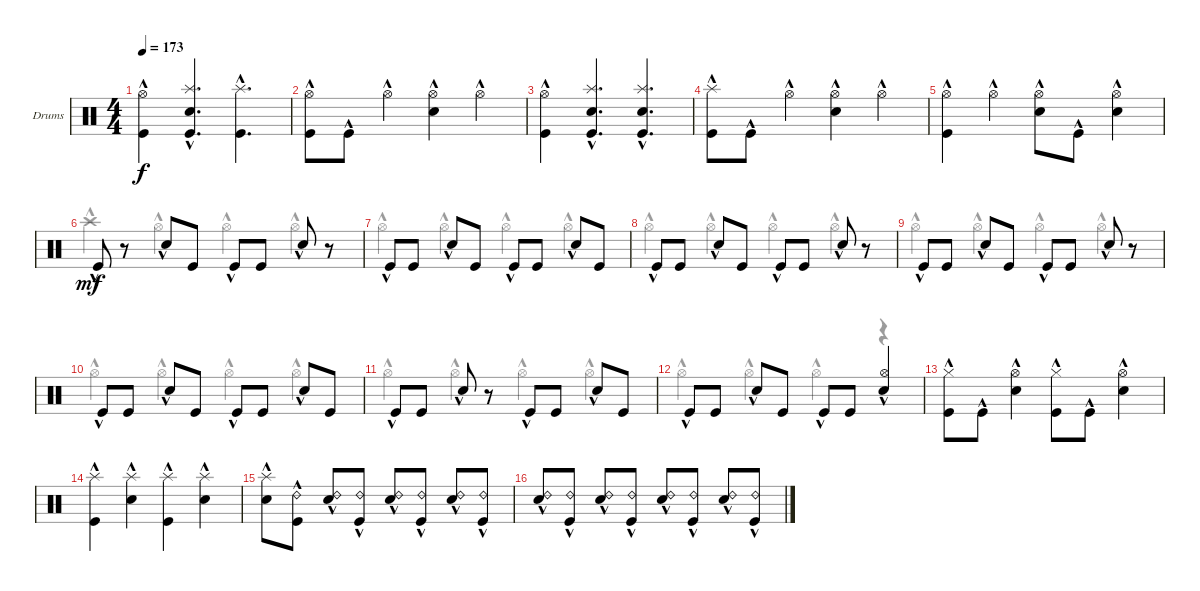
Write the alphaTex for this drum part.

\defaultSystemsLayout 4
\bracketExtendMode groupsimilarinstruments
\firstSystemTrackNameOrientation horizontal
\otherSystemsTrackNameOrientation horizontal
\track ("Drumkit" "Drums") {instrument percussion}
\staff {score}
\articulation defaults
\voice
\ts (4 4)
\tempo 173
\clef neutral
\ks c
("Kick (hit)"{hac} "Hi-Hat (open)"{hac}).4{dy f} ("Kick (hit)"{hac} "Splash (hit)"{hac} "Snare (hit) 2"{hac}).4{d} ("Kick (hit)"{hac} "Splash (hit)"{hac}).4{d} |
("Kick (hit)"{hac} "Hi-Hat (open)"{hac}).8 "Kick (hit)"{hac}.8 "Hi-Hat (open)"{hac}.4 ("Snare (hit) 2"{hac} "Hi-Hat (open)"{hac}).4 "Hi-Hat (open)"{hac}.4 |
("Kick (hit)"{hac} "Hi-Hat (open)"{hac}).4 ("Kick (hit)"{hac} "Splash (hit)"{hac} "Snare (hit) 2"{hac}).4{d} ("Kick (hit)"{hac} "Splash (hit)"{hac} "Snare (hit) 2"{hac}).4{d} |
("Splash (hit)"{hac} "Kick (hit)"{hac}).8 "Kick (hit)"{hac}.8 "Hi-Hat (open)"{hac}.4 ("Snare (hit) 2"{hac} "Hi-Hat (open)"{hac}).4 "Hi-Hat (open)"{hac}.4 |
("Kick (hit)"{hac} "Hi-Hat (open)"{hac}).4 "Hi-Hat (open)"{hac}.4 ("Snare (hit) 2"{hac} "Hi-Hat (open)"{hac}).8 "Kick (hit)"{hac}.8 ("Snare (hit) 2"{hac} "Hi-Hat (open)"{hac}).4 |
"Kick (hit)"{hac}.8{dy mf} r.8 "Snare (hit) 2"{hac}.8 "Kick (hit)".8 "Kick (hit)"{hac}.8 "Kick (hit)".8 "Snare (hit) 2"{hac}.8 r.8 |
"Kick (hit)"{hac}.8 "Kick (hit)".8 "Snare (hit) 2"{hac}.8 "Kick (hit)".8 "Kick (hit)"{hac}.8 "Kick (hit)".8 "Snare (hit) 2"{hac}.8 "Kick (hit)".8 |
"Kick (hit)"{hac}.8 "Kick (hit)".8 "Snare (hit) 2"{hac}.8 "Kick (hit)".8 "Kick (hit)"{hac}.8 "Kick (hit)".8 "Snare (hit) 2"{hac}.8 r.8 |
"Kick (hit)"{hac}.8 "Kick (hit)".8 "Snare (hit) 2"{hac}.8 "Kick (hit)".8 "Kick (hit)"{hac}.8 "Kick (hit)".8 "Snare (hit) 2"{hac}.8 r.8 |
"Kick (hit)"{hac}.8 "Kick (hit)".8 "Snare (hit) 2"{hac}.8 "Kick (hit)".8 "Kick (hit)"{hac}.8 "Kick (hit)".8 "Snare (hit) 2"{hac}.8 "Kick (hit)".8 |
"Kick (hit)"{hac}.8 "Kick (hit)".8 "Snare (hit) 2"{hac}.8 r.8 "Kick (hit)"{hac}.8 "Kick (hit)".8 "Snare (hit) 2"{hac}.8 "Kick (hit)".8 |
"Kick (hit)"{hac}.8 "Kick (hit)".8 "Snare (hit) 2"{hac}.8 "Kick (hit)".8 "Kick (hit)"{hac}.8 "Kick (hit)".8 ("Hi-Hat (open)"{hac} "Snare (hit) 2"{hac}).4 |
("Kick (hit)"{hac} "Hi-Hat (closed)"{hac}).8 "Kick (hit)"{hac}.8 ("Hi-Hat (open)"{hac} "Snare (hit) 2"{hac}).4 ("Hi-Hat (closed)"{hac} "Kick (hit)"{hac}).8 "Kick (hit)"{hac}.8 ("Hi-Hat (open)"{hac} "Snare (hit) 2"{hac}).4 |
("Splash (hit)"{hac} "Kick (hit)"{hac}).4 ("Splash (hit)"{hac} "Snare (hit) 2"{hac}).4 ("Splash (hit)"{hac} "Kick (hit)"{hac}).4 ("Splash (hit)"{hac} "Snare (hit) 2"{hac}).4 |
("Snare (hit) 2"{hac} "Splash (hit)"{hac}).8 ("Kick (hit)"{hac} "Ride (bell) 2"{hac}).8 ("Snare (hit) 2"{hac} "Ride (bell) 2"{hac}).8 ("Kick (hit)"{hac} "Ride (bell) 2"{hac}).8 ("Snare (hit) 2"{hac} "Ride (bell) 2"{hac}).8 ("Kick (hit)"{hac} "Ride (bell) 2"{hac}).8 ("Snare (hit) 2"{hac} "Ride (bell) 2"{hac}).8 ("Kick (hit)"{hac} "Ride (bell) 2"{hac}).8 |
("Snare (hit) 2"{hac} "Ride (bell) 2"{hac}).8 ("Kick (hit)"{hac} "Ride (bell) 2"{hac}).8 ("Snare (hit) 2"{hac} "Ride (bell) 2"{hac}).8 ("Kick (hit)"{hac} "Ride (bell) 2"{hac}).8 ("Snare (hit) 2"{hac} "Ride (bell) 2"{hac}).8 ("Kick (hit)"{hac} "Ride (bell) 2"{hac}).8 ("Snare (hit) 2"{hac} "Ride (bell) 2"{hac}).8 ("Kick (hit)"{hac} "Ride (bell) 2"{hac}).8
\voice
\clef neutral
\ottava regular
\simile none
\ks c
|
|
|
|
|
"Crash high (hit)"{hac}.4 "Hi-Hat (open)"{hac}.4 "Hi-Hat (open)"{hac}.4 "Hi-Hat (open)"{hac}.4 |
"Hi-Hat (open)"{hac}.4 "Hi-Hat (open)"{hac}.4 "Hi-Hat (open)"{hac}.4 "Hi-Hat (open)"{hac}.4 |
"Hi-Hat (open)"{hac}.4 "Hi-Hat (open)"{hac}.4 "Hi-Hat (open)"{hac}.4 "Hi-Hat (open)"{hac}.4 |
"Hi-Hat (open)"{hac}.4 "Hi-Hat (open)"{hac}.4 "Hi-Hat (open)"{hac}.4 "Hi-Hat (open)"{hac}.4 |
"Hi-Hat (open)"{hac}.4 "Hi-Hat (open)"{hac}.4 "Hi-Hat (open)"{hac}.4 "Hi-Hat (open)"{hac}.4 |
"Hi-Hat (open)"{hac}.4 "Hi-Hat (open)"{hac}.4 "Hi-Hat (open)"{hac}.4 "Hi-Hat (open)"{hac}.4 |
"Hi-Hat (open)"{hac}.4 "Hi-Hat (open)"{hac}.4 "Hi-Hat (open)"{hac}.4 r.4 |
|
|
|
